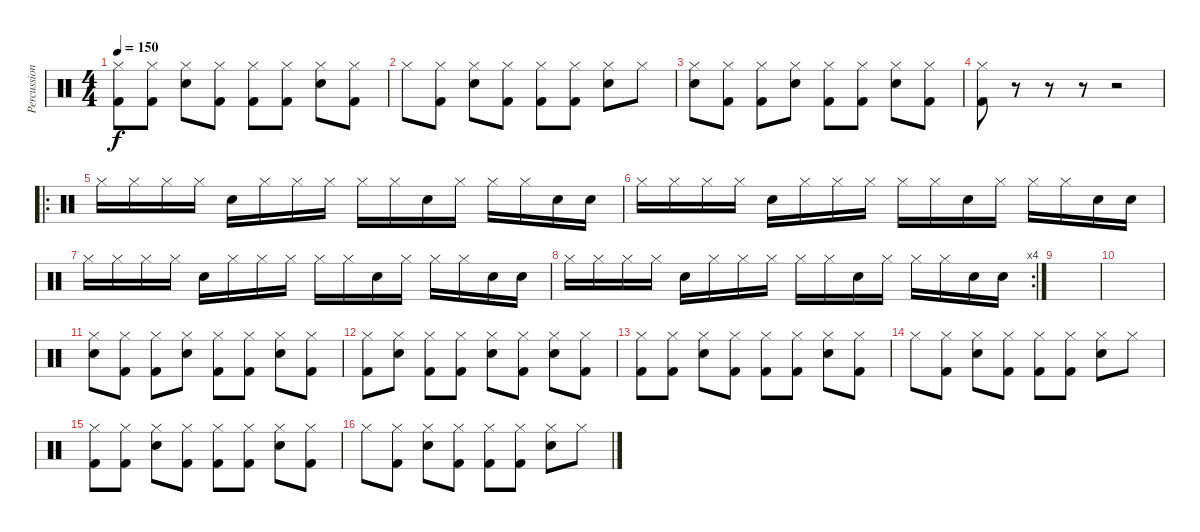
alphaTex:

\track ("Percussion" "Percussion") {instrument percussion}
\staff {score}
\articulation defaults
\ts (4 4)
\tempo 150
\clef neutral
\ks c
("Hi-Hat (closed)" "Kick (hit) 2").8{dy f} ("Hi-Hat (closed)" "Kick (hit) 2").8 ("Electric Snare (hit)" "Hi-Hat (closed)").8 ("Hi-Hat (closed)" "Kick (hit) 2").8 ("Hi-Hat (closed)" "Kick (hit) 2").8 ("Hi-Hat (closed)" "Kick (hit) 2").8 ("Electric Snare (hit)" "Hi-Hat (closed)").8 ("Hi-Hat (closed)" "Kick (hit) 2").8 |
"Hi-Hat (closed)".8 ("Hi-Hat (closed)" "Kick (hit) 2").8 ("Electric Snare (hit)" "Hi-Hat (closed)").8 ("Hi-Hat (closed)" "Kick (hit) 2").8 ("Hi-Hat (closed)" "Kick (hit) 2").8 ("Hi-Hat (closed)" "Kick (hit) 2").8 ("Electric Snare (hit)" "Hi-Hat (closed)").8 "Hi-Hat (closed)".8 |
("Electric Snare (hit)" "Hi-Hat (closed)").8 ("Hi-Hat (closed)" "Kick (hit) 2").8 ("Hi-Hat (closed)" "Kick (hit) 2").8 ("Electric Snare (hit)" "Hi-Hat (closed)").8 ("Hi-Hat (closed)" "Kick (hit) 2").8 ("Hi-Hat (closed)" "Kick (hit) 2").8 ("Electric Snare (hit)" "Hi-Hat (closed)").8 ("Hi-Hat (closed)" "Kick (hit) 2").8 |
("Hi-Hat (closed)" "Kick (hit) 2").8 r.8 r.8 r.8 r.2 |
\ro "Hi-Hat (closed)".16 "Hi-Hat (closed)".16 "Hi-Hat (closed)".16 "Hi-Hat (closed)".16 "Electric Snare (hit)".16 "Hi-Hat (closed)".16 "Hi-Hat (closed)".16 "Hi-Hat (closed)".16 "Hi-Hat (closed)".16 "Hi-Hat (closed)".16 "Electric Snare (hit)".16 "Hi-Hat (closed)".16 "Hi-Hat (closed)".16 "Hi-Hat (closed)".16 "Electric Snare (hit)".16 "Electric Snare (hit)".16
|
"Hi-Hat (closed)".16 "Hi-Hat (closed)".16 "Hi-Hat (closed)".16 "Hi-Hat (closed)".16 "Electric Snare (hit)".16 "Hi-Hat (closed)".16 "Hi-Hat (closed)".16 "Hi-Hat (closed)".16 "Hi-Hat (closed)".16 "Hi-Hat (closed)".16 "Electric Snare (hit)".16 "Hi-Hat (closed)".16 "Hi-Hat (closed)".16 "Hi-Hat (closed)".16 "Electric Snare (hit)".16 "Electric Snare (hit)".16 |
"Hi-Hat (closed)".16 "Hi-Hat (closed)".16 "Hi-Hat (closed)".16 "Hi-Hat (closed)".16 "Electric Snare (hit)".16 "Hi-Hat (closed)".16 "Hi-Hat (closed)".16 "Hi-Hat (closed)".16 "Hi-Hat (closed)".16 "Hi-Hat (closed)".16 "Electric Snare (hit)".16 "Hi-Hat (closed)".16 "Hi-Hat (closed)".16 "Hi-Hat (closed)".16 "Electric Snare (hit)".16 "Electric Snare (hit)".16 |
\rc 4 "Hi-Hat (closed)".16 "Hi-Hat (closed)".16 "Hi-Hat (closed)".16 "Hi-Hat (closed)".16 "Electric Snare (hit)".16 "Hi-Hat (closed)".16 "Hi-Hat (closed)".16 "Hi-Hat (closed)".16 "Hi-Hat (closed)".16 "Hi-Hat (closed)".16 "Electric Snare (hit)".16 "Hi-Hat (closed)".16 "Hi-Hat (closed)".16 "Hi-Hat (closed)".16 "Electric Snare (hit)".16 "Electric Snare (hit)".16
|
|
|
("Electric Snare (hit)" "Hi-Hat (closed)").8 ("Hi-Hat (closed)" "Kick (hit) 2").8 ("Hi-Hat (closed)" "Kick (hit) 2").8 ("Electric Snare (hit)" "Hi-Hat (closed)").8 ("Hi-Hat (closed)" "Kick (hit) 2").8 ("Hi-Hat (closed)" "Kick (hit) 2").8 ("Electric Snare (hit)" "Hi-Hat (closed)").8 ("Hi-Hat (closed)" "Kick (hit) 2").8 |
("Hi-Hat (closed)" "Kick (hit) 2").8 ("Electric Snare (hit)" "Hi-Hat (closed)").8 ("Hi-Hat (closed)" "Kick (hit) 2").8 ("Hi-Hat (closed)" "Kick (hit) 2").8 ("Electric Snare (hit)" "Hi-Hat (closed)").8 ("Hi-Hat (closed)" "Kick (hit) 2").8 ("Electric Snare (hit)" "Hi-Hat (closed)").8 ("Hi-Hat (closed)" "Kick (hit) 2").8 |
("Hi-Hat (closed)" "Kick (hit) 2").8 ("Hi-Hat (closed)" "Kick (hit) 2").8 ("Electric Snare (hit)" "Hi-Hat (closed)").8 ("Hi-Hat (closed)" "Kick (hit) 2").8 ("Hi-Hat (closed)" "Kick (hit) 2").8 ("Hi-Hat (closed)" "Kick (hit) 2").8 ("Electric Snare (hit)" "Hi-Hat (closed)").8 ("Hi-Hat (closed)" "Kick (hit) 2").8 |
"Hi-Hat (closed)".8 ("Hi-Hat (closed)" "Kick (hit) 2").8 ("Electric Snare (hit)" "Hi-Hat (closed)").8 ("Hi-Hat (closed)" "Kick (hit) 2").8 ("Hi-Hat (closed)" "Kick (hit) 2").8 ("Hi-Hat (closed)" "Kick (hit) 2").8 ("Electric Snare (hit)" "Hi-Hat (closed)").8 "Hi-Hat (closed)".8 |
("Hi-Hat (closed)" "Kick (hit) 2").8 ("Hi-Hat (closed)" "Kick (hit) 2").8 ("Electric Snare (hit)" "Hi-Hat (closed)").8 ("Hi-Hat (closed)" "Kick (hit) 2").8 ("Hi-Hat (closed)" "Kick (hit) 2").8 ("Hi-Hat (closed)" "Kick (hit) 2").8 ("Electric Snare (hit)" "Hi-Hat (closed)").8 ("Hi-Hat (closed)" "Kick (hit) 2").8 |
"Hi-Hat (closed)".8 ("Hi-Hat (closed)" "Kick (hit) 2").8 ("Electric Snare (hit)" "Hi-Hat (closed)").8 ("Hi-Hat (closed)" "Kick (hit) 2").8 ("Hi-Hat (closed)" "Kick (hit) 2").8 ("Hi-Hat (closed)" "Kick (hit) 2").8 ("Electric Snare (hit)" "Hi-Hat (closed)").8 "Hi-Hat (closed)".8
